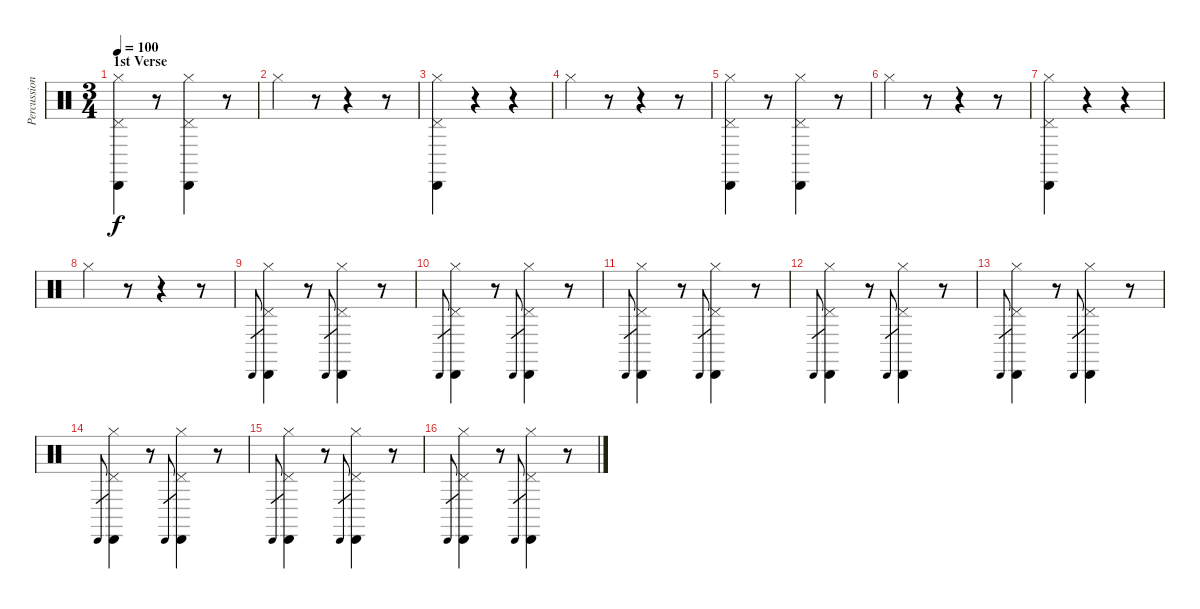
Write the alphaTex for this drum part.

\track ("Percussion" "Percussion") {instrument percussion}
\staff {score}
\articulation defaults
\ts (3 4)
\section ("" "1st Verse")
\tempo 100
\clef neutral
\ks c
("Pedal Hi-Hat (hit)" "Cabasa (hit)" "Hi-Hat (closed)").4{dy f} r.8 ("Pedal Hi-Hat (hit)" "Cabasa (hit)" "Hi-Hat (closed)").4 r.8 |
"Hi-Hat (closed)".4 r.8 r.4 r.8 |
("Pedal Hi-Hat (hit)" "Cabasa (hit)" "Hi-Hat (closed)").4 r.4 r.4 |
"Hi-Hat (closed)".4 r.8 r.4 r.8 |
("Pedal Hi-Hat (hit)" "Cabasa (hit)" "Hi-Hat (closed)").4 r.8 ("Pedal Hi-Hat (hit)" "Cabasa (hit)" "Hi-Hat (closed)").4 r.8 |
"Hi-Hat (closed)".4 r.8 r.4 r.8 |
("Pedal Hi-Hat (hit)" "Cabasa (hit)" "Hi-Hat (closed)").4 r.4 r.4 |
"Hi-Hat (closed)".4 r.8 r.4 r.8 |
"Cabasa (hit)".8{gr} ("Pedal Hi-Hat (hit)" "Cabasa (hit)" "Hi-Hat (closed)").4 r.8 "Cabasa (hit)".8{gr} ("Pedal Hi-Hat (hit)" "Cabasa (hit)" "Hi-Hat (closed)").4 r.8 |
"Cabasa (hit)".8{gr} ("Pedal Hi-Hat (hit)" "Cabasa (hit)" "Hi-Hat (closed)").4 r.8 "Cabasa (hit)".8{gr} ("Pedal Hi-Hat (hit)" "Cabasa (hit)" "Hi-Hat (closed)").4 r.8 |
"Cabasa (hit)".8{gr} ("Pedal Hi-Hat (hit)" "Cabasa (hit)" "Hi-Hat (closed)").4 r.8 "Cabasa (hit)".8{gr} ("Pedal Hi-Hat (hit)" "Cabasa (hit)" "Hi-Hat (closed)").4 r.8 |
"Cabasa (hit)".8{gr} ("Pedal Hi-Hat (hit)" "Cabasa (hit)" "Hi-Hat (closed)").4 r.8 "Cabasa (hit)".8{gr} ("Pedal Hi-Hat (hit)" "Cabasa (hit)" "Hi-Hat (closed)").4 r.8 |
"Cabasa (hit)".8{gr} ("Pedal Hi-Hat (hit)" "Cabasa (hit)" "Hi-Hat (closed)").4 r.8 "Cabasa (hit)".8{gr} ("Pedal Hi-Hat (hit)" "Cabasa (hit)" "Hi-Hat (closed)").4 r.8 |
"Cabasa (hit)".8{gr} ("Pedal Hi-Hat (hit)" "Cabasa (hit)" "Hi-Hat (closed)").4 r.8 "Cabasa (hit)".8{gr} ("Pedal Hi-Hat (hit)" "Cabasa (hit)" "Hi-Hat (closed)").4 r.8 |
"Cabasa (hit)".8{gr} ("Pedal Hi-Hat (hit)" "Cabasa (hit)" "Hi-Hat (closed)").4 r.8 "Cabasa (hit)".8{gr} ("Pedal Hi-Hat (hit)" "Cabasa (hit)" "Hi-Hat (closed)").4 r.8 |
"Cabasa (hit)".8{gr} ("Pedal Hi-Hat (hit)" "Cabasa (hit)" "Hi-Hat (closed)").4 r.8 "Cabasa (hit)".8{gr} ("Pedal Hi-Hat (hit)" "Cabasa (hit)" "Hi-Hat (closed)").4 r.8
